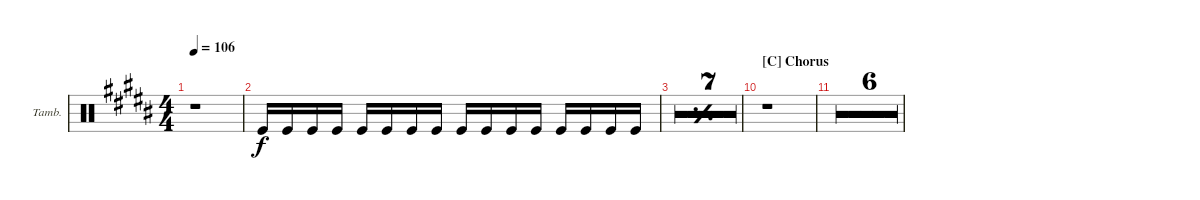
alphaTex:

\defaultSystemsLayout 4
\bracketExtendMode groupsimilarinstruments
\firstSystemTrackNameOrientation horizontal
\otherSystemsTrackNameOrientation horizontal
\track ("Tambourine" "Tamb.") {multiBarRest instrument percussion}
\staff {score}
\articulation defaults
\ts (4 4)
\tempo 106
\clef neutral
\ks b
r.1{dy f} |
"Kick (hit)".16 "Kick (hit)".16 "Kick (hit)".16 "Kick (hit)".16 "Kick (hit)".16 "Kick (hit)".16 "Kick (hit)".16 "Kick (hit)".16 "Kick (hit)".16 "Kick (hit)".16 "Kick (hit)".16 "Kick (hit)".16 "Kick (hit)".16 "Kick (hit)".16 "Kick (hit)".16 "Kick (hit)".16 |
\simile simple
|
|
|
|
|
|
\simile none
r.1 |
\section ("C" "Chorus")
r.1 |
r.1 |
r.1 |
r.1 |
r.1 |
r.1 |
r.1
